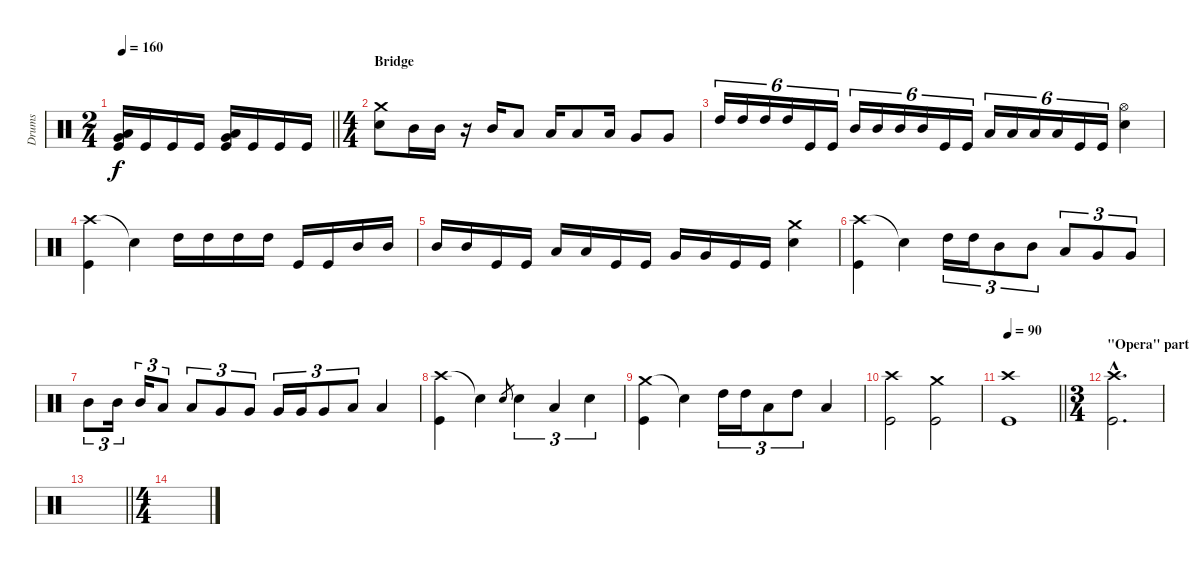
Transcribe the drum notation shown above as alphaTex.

\track ("Drums" "Drums") {instrument percussion}
\staff {score}
\articulation defaults
\ts (2 4)
\tempo 160
\clef neutral
\barLineRight lightlight
\ks c
("Low Tom (hit)" "Very Low Tom (hit)" "Kick (hit)").16{dy f} "Kick (hit)".16 "Kick (hit)".16 "Kick (hit)".16 ("Low Tom (hit)" "Very Low Tom (hit)" "Kick (hit)").16 "Kick (hit)".16 "Kick (hit)".16 "Kick (hit)".16 |
\ts (4 4)
\section ("" "Bridge")
("Crash medium (hit)" "Snare (hit) 2").8 "Mid Tom (hit)".16 "Mid Tom (hit)".16 r.16 "Mid Tom (hit)".16 "Low Tom (hit)".8 "Low Tom (hit)".16 "Low Tom (hit)".8 "Low Tom (hit)".16 "Very Low Tom (hit)".8 "Very Low Tom (hit)".8 |
"High Tom (hit)".16{tu (6 4)} "High Tom (hit)".16{tu (6 4)} "High Tom (hit)".16{tu (6 4)} "High Tom (hit)".16{tu (6 4)} "Kick (hit)".16{tu (6 4)} "Kick (hit)".16{tu (6 4)} "Mid Tom (hit)".16{tu (6 4)} "Mid Tom (hit)".16{tu (6 4)} "Mid Tom (hit)".16{tu (6 4)} "Mid Tom (hit)".16{tu (6 4)} "Kick (hit)".16{tu (6 4)} "Kick (hit)".16{tu (6 4)} "Low Tom (hit)".16{tu (6 4)} "Low Tom (hit)".16{tu (6 4)} "Low Tom (hit)".16{tu (6 4)} "Low Tom (hit)".16{tu (6 4)} "Kick (hit)".16{tu (6 4)} "Kick (hit)".16{tu (6 4)} ("Hi-Hat (open)" "Snare (hit) 2").4 |
("Crash high (hit)" "Kick (hit)").4 "Snare (hit)"{t}.4 "High Tom (hit)".16 "High Tom (hit)".16 "High Tom (hit)".16 "High Tom (hit)".16 "Kick (hit)".16 "Kick (hit)".16 "Mid Tom (hit)".16 "Mid Tom (hit)".16 |
"Mid Tom (hit)".16 "Mid Tom (hit)".16 "Kick (hit)".16 "Kick (hit)".16 "Low Tom (hit)".16 "Low Tom (hit)".16 "Kick (hit)".16 "Kick (hit)".16 "Very Low Tom (hit)".16 "Very Low Tom (hit)".16 "Kick (hit)".16 "Kick (hit)".16 ("Crash medium (hit)" "Snare (hit) 2").4 |
("Crash high (hit)" "Kick (hit)").4 "Snare (hit)"{t}.4 "High Tom (hit)".16{tu (3 2)} "High Tom (hit)".16{tu (3 2)} "Mid Tom (hit)".8{tu (3 2)} "Mid Tom (hit)".8{tu (3 2)} "Low Tom (hit)".8{tu (3 2)} "Very Low Tom (hit)".8{tu (3 2)} "Very Low Tom (hit)".8{tu (3 2)} |
"Mid Tom (hit)".8{tu (3 2)} "Mid Tom (hit)".16{tu (3 2)} "Mid Tom (hit)".16{tu (3 2)} "Low Tom (hit)".8{tu (3 2)} "Low Tom (hit)".8{tu (3 2)} "Very Low Tom (hit)".8{tu (3 2)} "Very Low Tom (hit)".8{tu (3 2)} "Very Low Tom (hit)".16{tu (3 2)} "Very Low Tom (hit)".16{tu (3 2)} "Very Low Tom (hit)".8{tu (3 2)} "Low Floor Tom (hit)".8{tu (3 2)} "Low Floor Tom (hit)".4 |
("Crash high (hit)" "Kick (hit)").4 "Snare (hit)"{t}.4 "Snare (hit) 2".8{gr} "Snare (hit) 2".4{tu (3 2)} "Low Tom (hit)".4{tu (3 2)} "Snare (hit) 2".4{tu (3 2)} |
("Crash medium (hit)" "Kick (hit)").4 "Snare (hit)"{t}.4 "High Tom (hit)".16{tu (3 2)} "High Tom (hit)".16{tu (3 2)} "Low Tom (hit)".8{tu (3 2)} "High Tom (hit)".8{tu (3 2)} "Low Tom (hit)".4 |
("Crash high (hit)" "Kick (hit)").2 ("Crash medium (hit)" "Kick (hit)").2 |
\tempo 90
\barLineRight lightlight
("Crash high (hit)" "Kick (hit)").1 |
\ts (3 4)
\section ("" "\"Opera\" part")
("Crash high (hit)"{hac} "Kick (hit)"{hac}).2{d} |
\barLineRight lightlight
|
\ts (4 4)
